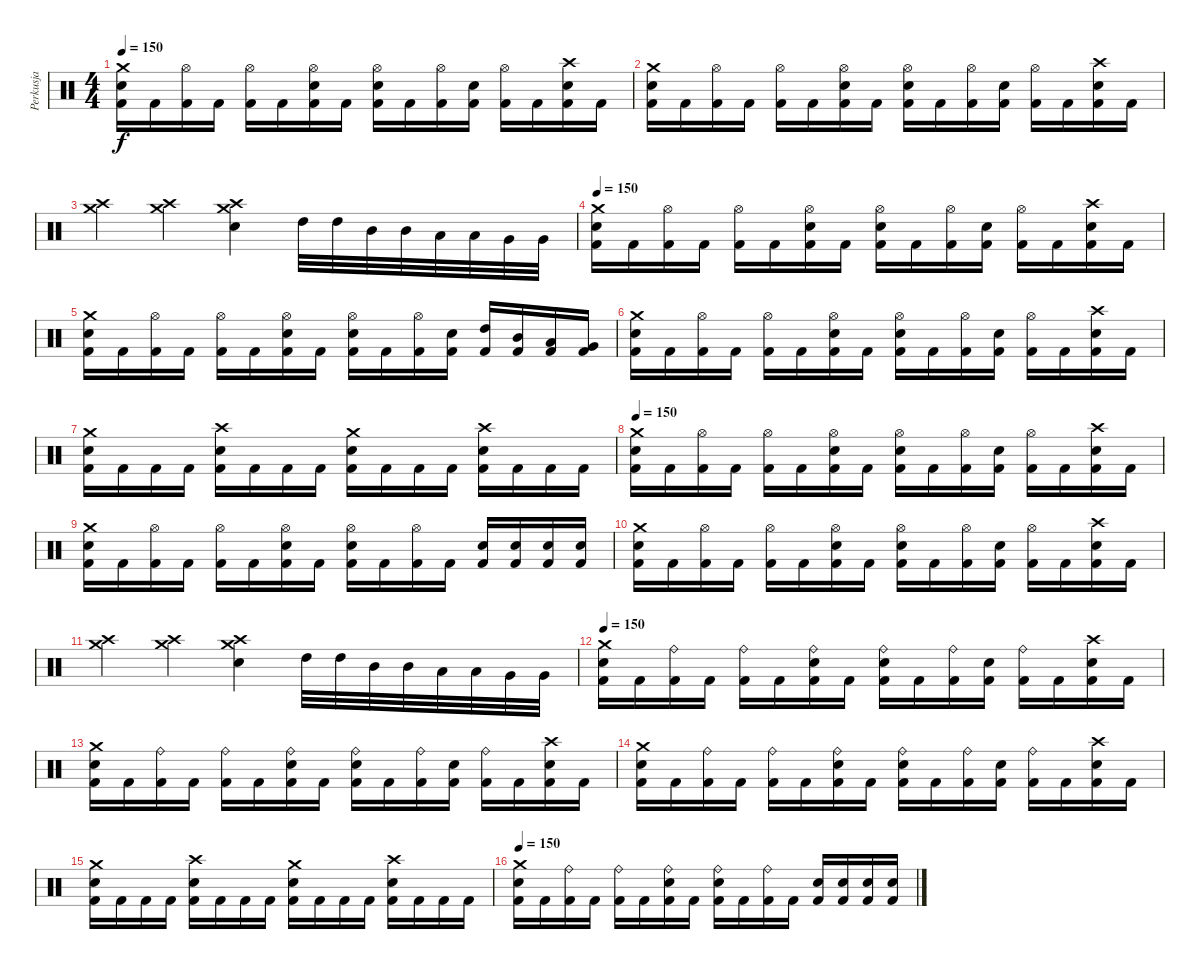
\track ("Perkusja" "Perkusja") {instrument percussion}
\staff {score}
\articulation defaults
\ts (4 4)
\tempo 150
\clef neutral
\ks c
("Crash medium (hit)" "Electric Snare (hit)" "Kick (hit) 2").16{dy f} "Kick (hit) 2".16 ("Hi-Hat (open)" "Kick (hit) 2").16 "Kick (hit) 2".16 ("Hi-Hat (open)" "Kick (hit) 2").16 "Kick (hit) 2".16 ("Hi-Hat (open)" "Electric Snare (hit)" "Kick (hit) 2").16 "Kick (hit) 2".16 ("Hi-Hat (open)" "Electric Snare (hit)" "Kick (hit) 2").16 "Kick (hit) 2".16 ("Hi-Hat (open)" "Kick (hit) 2").16 ("Electric Snare (hit)" "Kick (hit) 2").16 ("Hi-Hat (open)" "Kick (hit) 2").16 "Kick (hit) 2".16 ("Crash high (hit)" "Electric Snare (hit)" "Kick (hit) 2").16 "Kick (hit) 2".16 |
("Crash medium (hit)" "Electric Snare (hit)" "Kick (hit) 2").16 "Kick (hit) 2".16 ("Hi-Hat (open)" "Kick (hit) 2").16 "Kick (hit) 2".16 ("Hi-Hat (open)" "Kick (hit) 2").16 "Kick (hit) 2".16 ("Hi-Hat (open)" "Electric Snare (hit)" "Kick (hit) 2").16 "Kick (hit) 2".16 ("Hi-Hat (open)" "Electric Snare (hit)" "Kick (hit) 2").16 "Kick (hit) 2".16 ("Hi-Hat (open)" "Kick (hit) 2").16 ("Electric Snare (hit)" "Kick (hit) 2").16 ("Hi-Hat (open)" "Kick (hit) 2").16 "Kick (hit) 2".16 ("Crash high (hit)" "Electric Snare (hit)" "Kick (hit) 2").16 "Kick (hit) 2".16 |
("Crash medium (hit)" "Crash high (hit)").4 ("Crash medium (hit)" "Crash high (hit)").4 ("Crash high (hit)" "Crash medium (hit)" "Electric Snare (hit)").4 "High Tom (hit)".32 "High Tom (hit)".32 "Mid Tom (hit)".32 "Mid Tom (hit)".32 "Low Tom (hit)".32 "Low Tom (hit)".32 "Very Low Tom (hit)".32 "Very Low Tom (hit)".32 |
\tempo 150
("Crash medium (hit)" "Electric Snare (hit)" "Kick (hit) 2").16 "Kick (hit) 2".16 ("Hi-Hat (open)" "Kick (hit) 2").16 "Kick (hit) 2".16 ("Hi-Hat (open)" "Kick (hit) 2").16 "Kick (hit) 2".16 ("Hi-Hat (open)" "Electric Snare (hit)" "Kick (hit) 2").16 "Kick (hit) 2".16 ("Hi-Hat (open)" "Electric Snare (hit)" "Kick (hit) 2").16 "Kick (hit) 2".16 ("Hi-Hat (open)" "Kick (hit) 2").16 ("Electric Snare (hit)" "Kick (hit) 2").16 ("Hi-Hat (open)" "Kick (hit) 2").16 "Kick (hit) 2".16 ("Crash high (hit)" "Electric Snare (hit)" "Kick (hit) 2").16 "Kick (hit) 2".16 |
("Crash medium (hit)" "Electric Snare (hit)" "Kick (hit) 2").16 "Kick (hit) 2".16 ("Hi-Hat (open)" "Kick (hit) 2").16 "Kick (hit) 2".16 ("Hi-Hat (open)" "Kick (hit) 2").16 "Kick (hit) 2".16 ("Hi-Hat (open)" "Electric Snare (hit)" "Kick (hit) 2").16 "Kick (hit) 2".16 ("Hi-Hat (open)" "Electric Snare (hit)" "Kick (hit) 2").16 "Kick (hit) 2".16 ("Hi-Hat (open)" "Kick (hit) 2").16 ("Electric Snare (hit)" "Kick (hit) 2").16 ("High Tom (hit)" "Kick (hit) 2").16 ("Mid Tom (hit)" "Kick (hit) 2").16 ("Low Tom (hit)" "Kick (hit) 2").16 ("Very Low Tom (hit)" "Kick (hit) 2").16 |
("Crash medium (hit)" "Electric Snare (hit)" "Kick (hit) 2").16 "Kick (hit) 2".16 ("Hi-Hat (open)" "Kick (hit) 2").16 "Kick (hit) 2".16 ("Hi-Hat (open)" "Kick (hit) 2").16 "Kick (hit) 2".16 ("Hi-Hat (open)" "Electric Snare (hit)" "Kick (hit) 2").16 "Kick (hit) 2".16 ("Hi-Hat (open)" "Electric Snare (hit)" "Kick (hit) 2").16 "Kick (hit) 2".16 ("Hi-Hat (open)" "Kick (hit) 2").16 ("Electric Snare (hit)" "Kick (hit) 2").16 ("Hi-Hat (open)" "Kick (hit) 2").16 "Kick (hit) 2".16 ("Crash high (hit)" "Electric Snare (hit)" "Kick (hit) 2").16 "Kick (hit) 2".16 |
("Crash medium (hit)" "Electric Snare (hit)" "Kick (hit) 2").16 "Kick (hit) 2".16 "Kick (hit) 2".16 "Kick (hit) 2".16 ("Crash high (hit)" "Electric Snare (hit)" "Kick (hit) 2").16 "Kick (hit) 2".16 "Kick (hit) 2".16 "Kick (hit) 2".16 ("Crash medium (hit)" "Electric Snare (hit)" "Kick (hit) 2").16 "Kick (hit) 2".16 "Kick (hit) 2".16 "Kick (hit) 2".16 ("Crash high (hit)" "Electric Snare (hit)" "Kick (hit) 2").16 "Kick (hit) 2".16 "Kick (hit) 2".16 "Kick (hit) 2".16 |
\tempo 150
("Crash medium (hit)" "Electric Snare (hit)" "Kick (hit) 2").16 "Kick (hit) 2".16 ("Hi-Hat (open)" "Kick (hit) 2").16 "Kick (hit) 2".16 ("Hi-Hat (open)" "Kick (hit) 2").16 "Kick (hit) 2".16 ("Hi-Hat (open)" "Electric Snare (hit)" "Kick (hit) 2").16 "Kick (hit) 2".16 ("Hi-Hat (open)" "Electric Snare (hit)" "Kick (hit) 2").16 "Kick (hit) 2".16 ("Hi-Hat (open)" "Kick (hit) 2").16 ("Electric Snare (hit)" "Kick (hit) 2").16 ("Hi-Hat (open)" "Kick (hit) 2").16 "Kick (hit) 2".16 ("Crash high (hit)" "Electric Snare (hit)" "Kick (hit) 2").16 "Kick (hit) 2".16 |
("Crash medium (hit)" "Electric Snare (hit)" "Kick (hit) 2").16 "Kick (hit) 2".16 ("Hi-Hat (open)" "Kick (hit) 2").16 "Kick (hit) 2".16 ("Hi-Hat (open)" "Kick (hit) 2").16 "Kick (hit) 2".16 ("Hi-Hat (open)" "Electric Snare (hit)" "Kick (hit) 2").16 "Kick (hit) 2".16 ("Hi-Hat (open)" "Electric Snare (hit)" "Kick (hit) 2").16 "Kick (hit) 2".16 ("Hi-Hat (open)" "Kick (hit) 2").16 "Kick (hit) 2".16 ("Electric Snare (hit)" "Kick (hit) 2").16 ("Electric Snare (hit)" "Kick (hit) 2").16 ("Electric Snare (hit)" "Kick (hit) 2").16 ("Electric Snare (hit)" "Kick (hit) 2").16 |
("Crash medium (hit)" "Electric Snare (hit)" "Kick (hit) 2").16 "Kick (hit) 2".16 ("Hi-Hat (open)" "Kick (hit) 2").16 "Kick (hit) 2".16 ("Hi-Hat (open)" "Kick (hit) 2").16 "Kick (hit) 2".16 ("Hi-Hat (open)" "Electric Snare (hit)" "Kick (hit) 2").16 "Kick (hit) 2".16 ("Hi-Hat (open)" "Electric Snare (hit)" "Kick (hit) 2").16 "Kick (hit) 2".16 ("Hi-Hat (open)" "Kick (hit) 2").16 ("Electric Snare (hit)" "Kick (hit) 2").16 ("Hi-Hat (open)" "Kick (hit) 2").16 "Kick (hit) 2".16 ("Crash high (hit)" "Electric Snare (hit)" "Kick (hit) 2").16 "Kick (hit) 2".16 |
("Crash medium (hit)" "Crash high (hit)").4 ("Crash medium (hit)" "Crash high (hit)").4 ("Crash high (hit)" "Crash medium (hit)" "Electric Snare (hit)").4 "High Tom (hit)".32 "High Tom (hit)".32 "Mid Tom (hit)".32 "Mid Tom (hit)".32 "Low Tom (hit)".32 "Low Tom (hit)".32 "Very Low Tom (hit)".32 "Very Low Tom (hit)".32 |
\tempo 150
("Crash medium (hit)" "Electric Snare (hit)" "Kick (hit) 2").16 "Kick (hit) 2".16 ("Ride (bell)" "Kick (hit) 2").16 "Kick (hit) 2".16 ("Ride (bell)" "Kick (hit) 2").16 "Kick (hit) 2".16 ("Ride (bell)" "Electric Snare (hit)" "Kick (hit) 2").16 "Kick (hit) 2".16 ("Ride (bell)" "Electric Snare (hit)" "Kick (hit) 2").16 "Kick (hit) 2".16 ("Ride (bell)" "Kick (hit) 2").16 ("Electric Snare (hit)" "Kick (hit) 2").16 ("Ride (bell)" "Kick (hit) 2").16 "Kick (hit) 2".16 ("Crash high (hit)" "Electric Snare (hit)" "Kick (hit) 2").16 "Kick (hit) 2".16 |
("Crash medium (hit)" "Electric Snare (hit)" "Kick (hit) 2").16 "Kick (hit) 2".16 ("Ride (bell)" "Kick (hit) 2").16 "Kick (hit) 2".16 ("Ride (bell)" "Kick (hit) 2").16 "Kick (hit) 2".16 ("Ride (bell)" "Electric Snare (hit)" "Kick (hit) 2").16 "Kick (hit) 2".16 ("Ride (bell)" "Electric Snare (hit)" "Kick (hit) 2").16 "Kick (hit) 2".16 ("Ride (bell)" "Kick (hit) 2").16 ("Electric Snare (hit)" "Kick (hit) 2").16 ("Ride (bell)" "Kick (hit) 2").16 "Kick (hit) 2".16 ("Crash high (hit)" "Electric Snare (hit)" "Kick (hit) 2").16 "Kick (hit) 2".16 |
("Crash medium (hit)" "Electric Snare (hit)" "Kick (hit) 2").16 "Kick (hit) 2".16 ("Ride (bell)" "Kick (hit) 2").16 "Kick (hit) 2".16 ("Ride (bell)" "Kick (hit) 2").16 "Kick (hit) 2".16 ("Ride (bell)" "Electric Snare (hit)" "Kick (hit) 2").16 "Kick (hit) 2".16 ("Ride (bell)" "Electric Snare (hit)" "Kick (hit) 2").16 "Kick (hit) 2".16 ("Ride (bell)" "Kick (hit) 2").16 ("Electric Snare (hit)" "Kick (hit) 2").16 ("Ride (bell)" "Kick (hit) 2").16 "Kick (hit) 2".16 ("Crash high (hit)" "Electric Snare (hit)" "Kick (hit) 2").16 "Kick (hit) 2".16 |
("Crash medium (hit)" "Electric Snare (hit)" "Kick (hit) 2").16 "Kick (hit) 2".16 "Kick (hit) 2".16 "Kick (hit) 2".16 ("Crash high (hit)" "Electric Snare (hit)" "Kick (hit) 2").16 "Kick (hit) 2".16 "Kick (hit) 2".16 "Kick (hit) 2".16 ("Crash medium (hit)" "Electric Snare (hit)" "Kick (hit) 2").16 "Kick (hit) 2".16 "Kick (hit) 2".16 "Kick (hit) 2".16 ("Crash high (hit)" "Electric Snare (hit)" "Kick (hit) 2").16 "Kick (hit) 2".16 "Kick (hit) 2".16 "Kick (hit) 2".16 |
\tempo 150
("Crash medium (hit)" "Electric Snare (hit)" "Kick (hit) 2").16 "Kick (hit) 2".16 ("Ride (bell)" "Kick (hit) 2").16 "Kick (hit) 2".16 ("Ride (bell)" "Kick (hit) 2").16 "Kick (hit) 2".16 ("Ride (bell)" "Electric Snare (hit)" "Kick (hit) 2").16 "Kick (hit) 2".16 ("Ride (bell)" "Electric Snare (hit)" "Kick (hit) 2").16 "Kick (hit) 2".16 ("Ride (bell)" "Kick (hit) 2").16 "Kick (hit) 2".16 ("Electric Snare (hit)" "Kick (hit) 2").16 ("Electric Snare (hit)" "Kick (hit) 2").16 ("Electric Snare (hit)" "Kick (hit) 2").16 ("Electric Snare (hit)" "Kick (hit) 2").16
